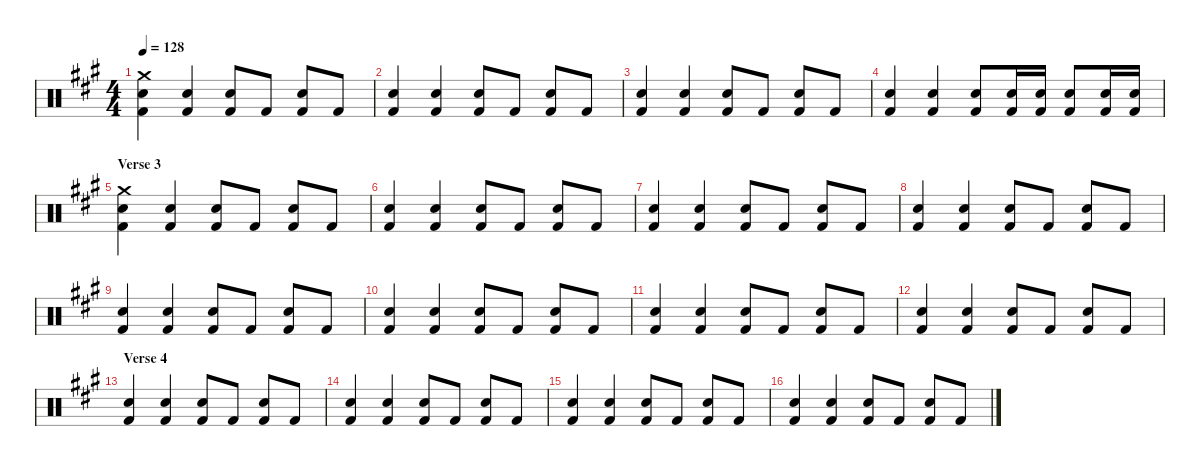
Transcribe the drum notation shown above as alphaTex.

\defaultSystemsLayout 4
\hideDynamics
\bracketExtendMode nobrackets
\singleTrackTrackNamePolicy hidden
\multiTrackTrackNamePolicy hidden
\firstSystemTrackNameMode fullname
\firstSystemTrackNameOrientation horizontal
\otherSystemsTrackNameOrientation horizontal
\track ("Drumkit" "Drums") {instrument percussion}
\staff {score}
\articulation defaults
\ts (4 4)
\tempo 128
\clef neutral
\ks a
("Crash medium (hit)"{acc forcenatural} "Snare (hit) 2"{acc forcenatural} "Kick (hit) 2"{acc forcenatural}).4{dy f beam Down} ("Snare (hit) 2"{acc forcenatural} "Kick (hit) 2"{acc forcenatural}).4{beam Up} ("Snare (hit) 2"{acc forcenatural} "Kick (hit) 2"{acc forcenatural}).8{beam Up} "Kick (hit) 2"{acc forcenatural}.8{beam Up} ("Snare (hit) 2"{acc forcenatural} "Kick (hit) 2"{acc forcenatural}).8{beam Up} "Kick (hit) 2"{acc forcenatural}.8{beam Up} |
("Snare (hit) 2"{acc forcenatural} "Kick (hit) 2"{acc forcenatural}).4{beam Up} ("Snare (hit) 2"{acc forcenatural} "Kick (hit) 2"{acc forcenatural}).4{beam Up} ("Snare (hit) 2"{acc forcenatural} "Kick (hit) 2"{acc forcenatural}).8{beam Up} "Kick (hit) 2"{acc forcenatural}.8{beam Up} ("Snare (hit) 2"{acc forcenatural} "Kick (hit) 2"{acc forcenatural}).8{beam Up} "Kick (hit) 2"{acc forcenatural}.8{beam Up} |
("Snare (hit) 2"{acc forcenatural} "Kick (hit) 2"{acc forcenatural}).4{beam Up} ("Snare (hit) 2"{acc forcenatural} "Kick (hit) 2"{acc forcenatural}).4{beam Up} ("Snare (hit) 2"{acc forcenatural} "Kick (hit) 2"{acc forcenatural}).8{beam Up} "Kick (hit) 2"{acc forcenatural}.8{beam Up} ("Snare (hit) 2"{acc forcenatural} "Kick (hit) 2"{acc forcenatural}).8{beam Up} "Kick (hit) 2"{acc forcenatural}.8{beam Up} |
("Snare (hit) 2"{acc forcenatural} "Kick (hit) 2"{acc forcenatural}).4{beam Up} ("Snare (hit) 2"{acc forcenatural} "Kick (hit) 2"{acc forcenatural}).4{beam Up} ("Snare (hit) 2"{acc forcenatural} "Kick (hit) 2"{acc forcenatural}).8{beam Up} ("Snare (hit) 2"{acc forcenatural} "Kick (hit) 2"{acc forcenatural}).16{beam Up} ("Snare (hit) 2"{acc forcenatural} "Kick (hit) 2"{acc forcenatural}).16{beam Up} ("Snare (hit) 2"{acc forcenatural} "Kick (hit) 2"{acc forcenatural}).8{beam Up} ("Snare (hit) 2"{acc forcenatural} "Kick (hit) 2"{acc forcenatural}).16{beam Up} ("Snare (hit) 2"{acc forcenatural} "Kick (hit) 2"{acc forcenatural}).16{beam Up} |
\section ("" "Verse 3")
("Crash medium (hit)"{acc forcenatural} "Snare (hit) 2"{acc forcenatural} "Kick (hit) 2"{acc forcenatural}).4{beam Down} ("Snare (hit) 2"{acc forcenatural} "Kick (hit) 2"{acc forcenatural}).4{beam Up} ("Snare (hit) 2"{acc forcenatural} "Kick (hit) 2"{acc forcenatural}).8{beam Up} "Kick (hit) 2"{acc forcenatural}.8{beam Up} ("Snare (hit) 2"{acc forcenatural} "Kick (hit) 2"{acc forcenatural}).8{beam Up} "Kick (hit) 2"{acc forcenatural}.8{beam Up} |
("Snare (hit) 2"{acc forcenatural} "Kick (hit) 2"{acc forcenatural}).4{beam Up} ("Snare (hit) 2"{acc forcenatural} "Kick (hit) 2"{acc forcenatural}).4{beam Up} ("Snare (hit) 2"{acc forcenatural} "Kick (hit) 2"{acc forcenatural}).8{beam Up} "Kick (hit) 2"{acc forcenatural}.8{beam Up} ("Snare (hit) 2"{acc forcenatural} "Kick (hit) 2"{acc forcenatural}).8{beam Up} "Kick (hit) 2"{acc forcenatural}.8{beam Up} |
("Snare (hit) 2"{acc forcenatural} "Kick (hit) 2"{acc forcenatural}).4{beam Up} ("Snare (hit) 2"{acc forcenatural} "Kick (hit) 2"{acc forcenatural}).4{beam Up} ("Snare (hit) 2"{acc forcenatural} "Kick (hit) 2"{acc forcenatural}).8{beam Up} "Kick (hit) 2"{acc forcenatural}.8{beam Up} ("Snare (hit) 2"{acc forcenatural} "Kick (hit) 2"{acc forcenatural}).8{beam Up} "Kick (hit) 2"{acc forcenatural}.8{beam Up} |
("Snare (hit) 2"{acc forcenatural} "Kick (hit) 2"{acc forcenatural}).4{beam Up} ("Snare (hit) 2"{acc forcenatural} "Kick (hit) 2"{acc forcenatural}).4{beam Up} ("Snare (hit) 2"{acc forcenatural} "Kick (hit) 2"{acc forcenatural}).8{beam Up} "Kick (hit) 2"{acc forcenatural}.8{beam Up} ("Snare (hit) 2"{acc forcenatural} "Kick (hit) 2"{acc forcenatural}).8{beam Up} "Kick (hit) 2"{acc forcenatural}.8{beam Up} |
("Snare (hit) 2"{acc forcenatural} "Kick (hit) 2"{acc forcenatural}).4{beam Up} ("Snare (hit) 2"{acc forcenatural} "Kick (hit) 2"{acc forcenatural}).4{beam Up} ("Snare (hit) 2"{acc forcenatural} "Kick (hit) 2"{acc forcenatural}).8{beam Up} "Kick (hit) 2"{acc forcenatural}.8{beam Up} ("Snare (hit) 2"{acc forcenatural} "Kick (hit) 2"{acc forcenatural}).8{beam Up} "Kick (hit) 2"{acc forcenatural}.8{beam Up} |
("Snare (hit) 2"{acc forcenatural} "Kick (hit) 2"{acc forcenatural}).4{beam Up} ("Snare (hit) 2"{acc forcenatural} "Kick (hit) 2"{acc forcenatural}).4{beam Up} ("Snare (hit) 2"{acc forcenatural} "Kick (hit) 2"{acc forcenatural}).8{beam Up} "Kick (hit) 2"{acc forcenatural}.8{beam Up} ("Snare (hit) 2"{acc forcenatural} "Kick (hit) 2"{acc forcenatural}).8{beam Up} "Kick (hit) 2"{acc forcenatural}.8{beam Up} |
("Snare (hit) 2"{acc forcenatural} "Kick (hit) 2"{acc forcenatural}).4{beam Up} ("Snare (hit) 2"{acc forcenatural} "Kick (hit) 2"{acc forcenatural}).4{beam Up} ("Snare (hit) 2"{acc forcenatural} "Kick (hit) 2"{acc forcenatural}).8{beam Up} "Kick (hit) 2"{acc forcenatural}.8{beam Up} ("Snare (hit) 2"{acc forcenatural} "Kick (hit) 2"{acc forcenatural}).8{beam Up} "Kick (hit) 2"{acc forcenatural}.8{beam Up} |
("Snare (hit) 2"{acc forcenatural} "Kick (hit) 2"{acc forcenatural}).4{beam Up} ("Snare (hit) 2"{acc forcenatural} "Kick (hit) 2"{acc forcenatural}).4{beam Up} ("Snare (hit) 2"{acc forcenatural} "Kick (hit) 2"{acc forcenatural}).8{beam Up} "Kick (hit) 2"{acc forcenatural}.8{beam Up} ("Snare (hit) 2"{acc forcenatural} "Kick (hit) 2"{acc forcenatural}).8{beam Up} "Kick (hit) 2"{acc forcenatural}.8{beam Up} |
\section ("" "Verse 4")
("Snare (hit) 2"{acc forcenatural} "Kick (hit) 2"{acc forcenatural}).4{beam Up} ("Snare (hit) 2"{acc forcenatural} "Kick (hit) 2"{acc forcenatural}).4{beam Up} ("Snare (hit) 2"{acc forcenatural} "Kick (hit) 2"{acc forcenatural}).8{beam Up} "Kick (hit) 2"{acc forcenatural}.8{beam Up} ("Snare (hit) 2"{acc forcenatural} "Kick (hit) 2"{acc forcenatural}).8{beam Up} "Kick (hit) 2"{acc forcenatural}.8{beam Up} |
("Snare (hit) 2"{acc forcenatural} "Kick (hit) 2"{acc forcenatural}).4{beam Up} ("Snare (hit) 2"{acc forcenatural} "Kick (hit) 2"{acc forcenatural}).4{beam Up} ("Snare (hit) 2"{acc forcenatural} "Kick (hit) 2"{acc forcenatural}).8{beam Up} "Kick (hit) 2"{acc forcenatural}.8{beam Up} ("Snare (hit) 2"{acc forcenatural} "Kick (hit) 2"{acc forcenatural}).8{beam Up} "Kick (hit) 2"{acc forcenatural}.8{beam Up} |
("Snare (hit) 2"{acc forcenatural} "Kick (hit) 2"{acc forcenatural}).4{beam Up} ("Snare (hit) 2"{acc forcenatural} "Kick (hit) 2"{acc forcenatural}).4{beam Up} ("Snare (hit) 2"{acc forcenatural} "Kick (hit) 2"{acc forcenatural}).8{beam Up} "Kick (hit) 2"{acc forcenatural}.8{beam Up} ("Snare (hit) 2"{acc forcenatural} "Kick (hit) 2"{acc forcenatural}).8{beam Up} "Kick (hit) 2"{acc forcenatural}.8{beam Up} |
("Snare (hit) 2"{acc forcenatural} "Kick (hit) 2"{acc forcenatural}).4{beam Up} ("Snare (hit) 2"{acc forcenatural} "Kick (hit) 2"{acc forcenatural}).4{beam Up} ("Snare (hit) 2"{acc forcenatural} "Kick (hit) 2"{acc forcenatural}).8{beam Up} "Kick (hit) 2"{acc forcenatural}.8{beam Up} ("Snare (hit) 2"{acc forcenatural} "Kick (hit) 2"{acc forcenatural}).8{beam Up} "Kick (hit) 2"{acc forcenatural}.8{beam Up}
